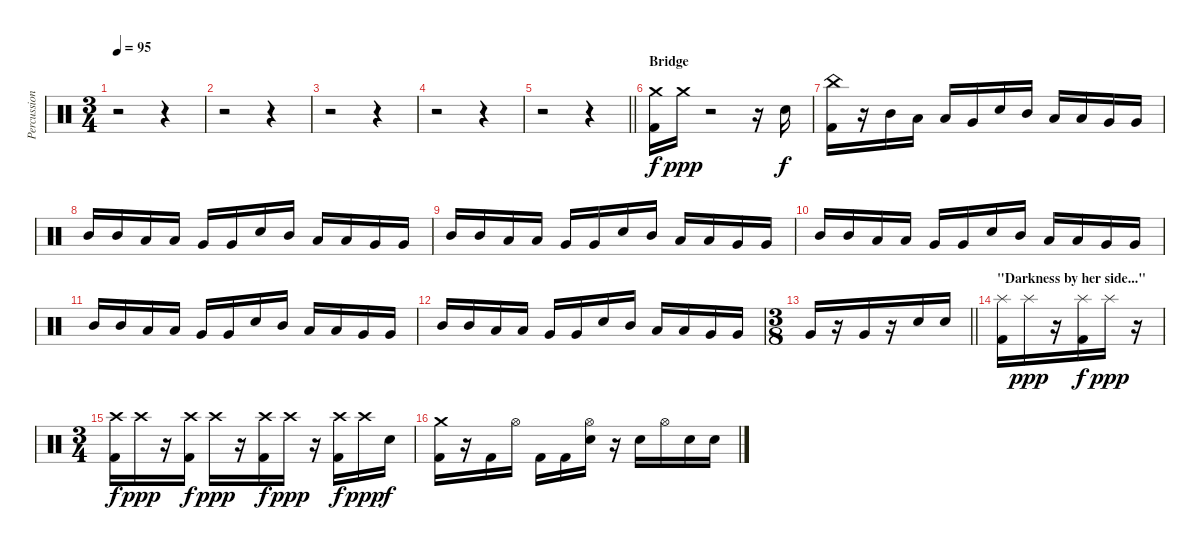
\track ("Percussion" "Percussion") {instrument percussion}
\staff {score}
\articulation defaults
\ts (3 4)
\tempo 95
\clef neutral
\ks c
r.2{dy f} r.4 |
r.2 r.4 |
r.2 r.4 |
r.2 r.4 |
\barLineRight lightlight
r.2 r.4 |
\section ("" "Bridge")
("Crash medium (hit)" "Kick (hit) 2").16 "Crash medium (hit)".16{dy ppp} r.2 r.16 "Electric Snare (hit)".16{dy f} |
("China (hit)" "Kick (hit) 2").16 r.16 "Mid Tom (hit)".16 "Low Tom (hit)".16 "Low Tom (hit)".16 "Very Low Tom (hit)".16 "Electric Snare (hit)".16 "Mid Tom (hit)".16 "Low Tom (hit)".16 "Low Tom (hit)".16 "Very Low Tom (hit)".16 "Very Low Tom (hit)".16 |
"Mid Tom (hit)".16 "Mid Tom (hit)".16 "Low Tom (hit)".16 "Low Tom (hit)".16 "Very Low Tom (hit)".16 "Very Low Tom (hit)".16 "Electric Snare (hit)".16 "Mid Tom (hit)".16 "Low Tom (hit)".16 "Low Tom (hit)".16 "Very Low Tom (hit)".16 "Very Low Tom (hit)".16 |
"Mid Tom (hit)".16 "Mid Tom (hit)".16 "Low Tom (hit)".16 "Low Tom (hit)".16 "Very Low Tom (hit)".16 "Very Low Tom (hit)".16 "Electric Snare (hit)".16 "Mid Tom (hit)".16 "Low Tom (hit)".16 "Low Tom (hit)".16 "Very Low Tom (hit)".16 "Very Low Tom (hit)".16 |
"Mid Tom (hit)".16 "Mid Tom (hit)".16 "Low Tom (hit)".16 "Low Tom (hit)".16 "Very Low Tom (hit)".16 "Very Low Tom (hit)".16 "Electric Snare (hit)".16 "Mid Tom (hit)".16 "Low Tom (hit)".16 "Low Tom (hit)".16 "Very Low Tom (hit)".16 "Very Low Tom (hit)".16 |
"Mid Tom (hit)".16 "Mid Tom (hit)".16 "Low Tom (hit)".16 "Low Tom (hit)".16 "Very Low Tom (hit)".16 "Very Low Tom (hit)".16 "Electric Snare (hit)".16 "Mid Tom (hit)".16 "Low Tom (hit)".16 "Low Tom (hit)".16 "Very Low Tom (hit)".16 "Very Low Tom (hit)".16 |
"Mid Tom (hit)".16 "Mid Tom (hit)".16 "Low Tom (hit)".16 "Low Tom (hit)".16 "Very Low Tom (hit)".16 "Very Low Tom (hit)".16 "Electric Snare (hit)".16 "Mid Tom (hit)".16 "Low Tom (hit)".16 "Low Tom (hit)".16 "Very Low Tom (hit)".16 "Very Low Tom (hit)".16 |
\ts (3 8)
\barLineRight lightlight "Very Low Tom (hit)".16
r.16 "Very Low Tom (hit)".16 r.16 "Electric Snare (hit)".16 "Electric Snare (hit)".16 |
\section ("" "\"Darkness by her side...\"")
("Splash (hit)" "Kick (hit) 2").16 "Splash (hit)".16{dy ppp} r.16 ("Splash (hit)" "Kick (hit) 2").16{dy f} "Splash (hit)".16{dy ppp} r.16 |
\ts (3 4)
("Crash high (hit)" "Kick (hit) 2").16{dy f} "Crash high (hit)".16{dy ppp} r.16 ("Crash high (hit)" "Kick (hit) 2").16{dy f} "Crash high (hit)".16{dy ppp} r.16 ("Crash high (hit)" "Kick (hit) 2").16{dy f} "Crash high (hit)".16{dy ppp} r.16 ("Crash high (hit)" "Kick (hit) 2").16{dy f} "Crash high (hit)".16{dy ppp} "Electric Snare (hit)".16{dy f} |
("Crash medium (hit)" "Kick (hit) 2").16 r.16 "Kick (hit) 2".16 "Hi-Hat (open)".16 "Kick (hit) 2".16 "Kick (hit) 2".16 ("Hi-Hat (open)" "Electric Snare (hit)").16 r.16 "Electric Snare (hit)".16 "Hi-Hat (open)".16 "Electric Snare (hit)".16 "Electric Snare (hit)".16
